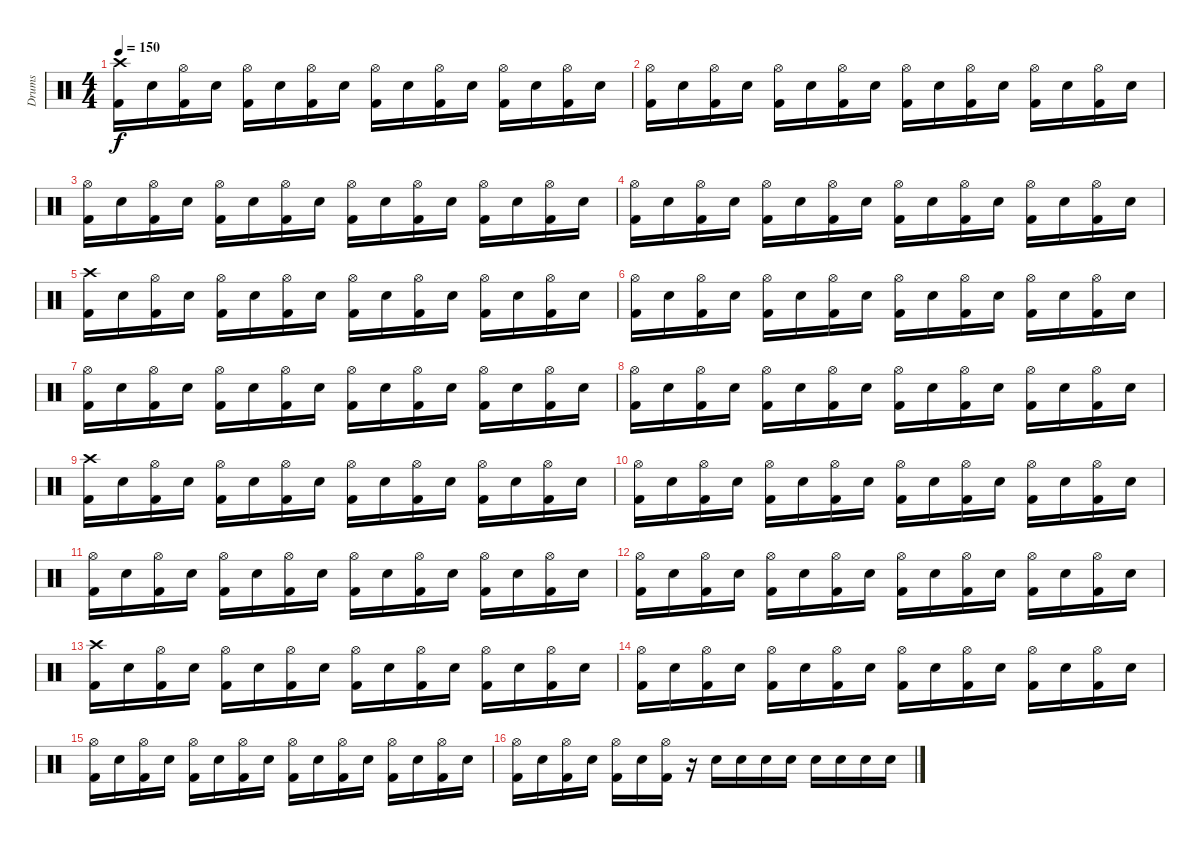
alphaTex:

\track ("Drums" "Drums") {instrument percussion}
\staff {score}
\articulation defaults
\ts (4 4)
\tempo 150
\clef neutral
\ks c
("Kick (hit) 2" "Crash high (hit)").16{dy f} "Electric Snare (hit)".16 ("Kick (hit) 2" "Hi-Hat (open)").16 "Electric Snare (hit)".16 ("Kick (hit) 2" "Hi-Hat (open)").16 "Electric Snare (hit)".16 ("Kick (hit) 2" "Hi-Hat (open)").16 "Electric Snare (hit)".16 ("Kick (hit) 2" "Hi-Hat (open)").16 "Electric Snare (hit)".16 ("Kick (hit) 2" "Hi-Hat (open)").16 "Electric Snare (hit)".16 ("Kick (hit) 2" "Hi-Hat (open)").16 "Electric Snare (hit)".16 ("Kick (hit) 2" "Hi-Hat (open)").16 "Electric Snare (hit)".16 |
("Kick (hit) 2" "Hi-Hat (open)").16 "Electric Snare (hit)".16 ("Kick (hit) 2" "Hi-Hat (open)").16 "Electric Snare (hit)".16 ("Kick (hit) 2" "Hi-Hat (open)").16 "Electric Snare (hit)".16 ("Kick (hit) 2" "Hi-Hat (open)").16 "Electric Snare (hit)".16 ("Kick (hit) 2" "Hi-Hat (open)").16 "Electric Snare (hit)".16 ("Kick (hit) 2" "Hi-Hat (open)").16 "Electric Snare (hit)".16 ("Kick (hit) 2" "Hi-Hat (open)").16 "Electric Snare (hit)".16 ("Kick (hit) 2" "Hi-Hat (open)").16 "Electric Snare (hit)".16 |
("Kick (hit) 2" "Hi-Hat (open)").16 "Electric Snare (hit)".16 ("Kick (hit) 2" "Hi-Hat (open)").16 "Electric Snare (hit)".16 ("Kick (hit) 2" "Hi-Hat (open)").16 "Electric Snare (hit)".16 ("Kick (hit) 2" "Hi-Hat (open)").16 "Electric Snare (hit)".16 ("Kick (hit) 2" "Hi-Hat (open)").16 "Electric Snare (hit)".16 ("Kick (hit) 2" "Hi-Hat (open)").16 "Electric Snare (hit)".16 ("Kick (hit) 2" "Hi-Hat (open)").16 "Electric Snare (hit)".16 ("Kick (hit) 2" "Hi-Hat (open)").16 "Electric Snare (hit)".16 |
("Kick (hit) 2" "Hi-Hat (open)").16 "Electric Snare (hit)".16 ("Kick (hit) 2" "Hi-Hat (open)").16 "Electric Snare (hit)".16 ("Kick (hit) 2" "Hi-Hat (open)").16 "Electric Snare (hit)".16 ("Kick (hit) 2" "Hi-Hat (open)").16 "Electric Snare (hit)".16 ("Kick (hit) 2" "Hi-Hat (open)").16 "Electric Snare (hit)".16 ("Kick (hit) 2" "Hi-Hat (open)").16 "Electric Snare (hit)".16 ("Kick (hit) 2" "Hi-Hat (open)").16 "Electric Snare (hit)".16 ("Kick (hit) 2" "Hi-Hat (open)").16 "Electric Snare (hit)".16 |
("Kick (hit) 2" "Crash high (hit)").16 "Electric Snare (hit)".16 ("Kick (hit) 2" "Hi-Hat (open)").16 "Electric Snare (hit)".16 ("Kick (hit) 2" "Hi-Hat (open)").16 "Electric Snare (hit)".16 ("Kick (hit) 2" "Hi-Hat (open)").16 "Electric Snare (hit)".16 ("Kick (hit) 2" "Hi-Hat (open)").16 "Electric Snare (hit)".16 ("Kick (hit) 2" "Hi-Hat (open)").16 "Electric Snare (hit)".16 ("Kick (hit) 2" "Hi-Hat (open)").16 "Electric Snare (hit)".16 ("Kick (hit) 2" "Hi-Hat (open)").16 "Electric Snare (hit)".16 |
("Kick (hit) 2" "Hi-Hat (open)").16 "Electric Snare (hit)".16 ("Kick (hit) 2" "Hi-Hat (open)").16 "Electric Snare (hit)".16 ("Kick (hit) 2" "Hi-Hat (open)").16 "Electric Snare (hit)".16 ("Kick (hit) 2" "Hi-Hat (open)").16 "Electric Snare (hit)".16 ("Kick (hit) 2" "Hi-Hat (open)").16 "Electric Snare (hit)".16 ("Kick (hit) 2" "Hi-Hat (open)").16 "Electric Snare (hit)".16 ("Kick (hit) 2" "Hi-Hat (open)").16 "Electric Snare (hit)".16 ("Kick (hit) 2" "Hi-Hat (open)").16 "Electric Snare (hit)".16 |
("Kick (hit) 2" "Hi-Hat (open)").16 "Electric Snare (hit)".16 ("Kick (hit) 2" "Hi-Hat (open)").16 "Electric Snare (hit)".16 ("Kick (hit) 2" "Hi-Hat (open)").16 "Electric Snare (hit)".16 ("Kick (hit) 2" "Hi-Hat (open)").16 "Electric Snare (hit)".16 ("Kick (hit) 2" "Hi-Hat (open)").16 "Electric Snare (hit)".16 ("Kick (hit) 2" "Hi-Hat (open)").16 "Electric Snare (hit)".16 ("Kick (hit) 2" "Hi-Hat (open)").16 "Electric Snare (hit)".16 ("Kick (hit) 2" "Hi-Hat (open)").16 "Electric Snare (hit)".16 |
("Kick (hit) 2" "Hi-Hat (open)").16 "Electric Snare (hit)".16 ("Kick (hit) 2" "Hi-Hat (open)").16 "Electric Snare (hit)".16 ("Kick (hit) 2" "Hi-Hat (open)").16 "Electric Snare (hit)".16 ("Kick (hit) 2" "Hi-Hat (open)").16 "Electric Snare (hit)".16 ("Kick (hit) 2" "Hi-Hat (open)").16 "Electric Snare (hit)".16 ("Kick (hit) 2" "Hi-Hat (open)").16 "Electric Snare (hit)".16 ("Kick (hit) 2" "Hi-Hat (open)").16 "Electric Snare (hit)".16 ("Kick (hit) 2" "Hi-Hat (open)").16 "Electric Snare (hit)".16 |
("Kick (hit) 2" "Crash high (hit)").16 "Electric Snare (hit)".16 ("Kick (hit) 2" "Hi-Hat (open)").16 "Electric Snare (hit)".16 ("Kick (hit) 2" "Hi-Hat (open)").16 "Electric Snare (hit)".16 ("Kick (hit) 2" "Hi-Hat (open)").16 "Electric Snare (hit)".16 ("Kick (hit) 2" "Hi-Hat (open)").16 "Electric Snare (hit)".16 ("Kick (hit) 2" "Hi-Hat (open)").16 "Electric Snare (hit)".16 ("Kick (hit) 2" "Hi-Hat (open)").16 "Electric Snare (hit)".16 ("Kick (hit) 2" "Hi-Hat (open)").16 "Electric Snare (hit)".16 |
("Kick (hit) 2" "Hi-Hat (open)").16 "Electric Snare (hit)".16 ("Kick (hit) 2" "Hi-Hat (open)").16 "Electric Snare (hit)".16 ("Kick (hit) 2" "Hi-Hat (open)").16 "Electric Snare (hit)".16 ("Kick (hit) 2" "Hi-Hat (open)").16 "Electric Snare (hit)".16 ("Kick (hit) 2" "Hi-Hat (open)").16 "Electric Snare (hit)".16 ("Kick (hit) 2" "Hi-Hat (open)").16 "Electric Snare (hit)".16 ("Kick (hit) 2" "Hi-Hat (open)").16 "Electric Snare (hit)".16 ("Kick (hit) 2" "Hi-Hat (open)").16 "Electric Snare (hit)".16 |
("Kick (hit) 2" "Hi-Hat (open)").16 "Electric Snare (hit)".16 ("Kick (hit) 2" "Hi-Hat (open)").16 "Electric Snare (hit)".16 ("Kick (hit) 2" "Hi-Hat (open)").16 "Electric Snare (hit)".16 ("Kick (hit) 2" "Hi-Hat (open)").16 "Electric Snare (hit)".16 ("Kick (hit) 2" "Hi-Hat (open)").16 "Electric Snare (hit)".16 ("Kick (hit) 2" "Hi-Hat (open)").16 "Electric Snare (hit)".16 ("Kick (hit) 2" "Hi-Hat (open)").16 "Electric Snare (hit)".16 ("Kick (hit) 2" "Hi-Hat (open)").16 "Electric Snare (hit)".16 |
("Kick (hit) 2" "Hi-Hat (open)").16 "Electric Snare (hit)".16 ("Kick (hit) 2" "Hi-Hat (open)").16 "Electric Snare (hit)".16 ("Kick (hit) 2" "Hi-Hat (open)").16 "Electric Snare (hit)".16 ("Kick (hit) 2" "Hi-Hat (open)").16 "Electric Snare (hit)".16 ("Kick (hit) 2" "Hi-Hat (open)").16 "Electric Snare (hit)".16 ("Kick (hit) 2" "Hi-Hat (open)").16 "Electric Snare (hit)".16 ("Kick (hit) 2" "Hi-Hat (open)").16 "Electric Snare (hit)".16 ("Kick (hit) 2" "Hi-Hat (open)").16 "Electric Snare (hit)".16 |
("Kick (hit) 2" "Crash high (hit)").16 "Electric Snare (hit)".16 ("Kick (hit) 2" "Hi-Hat (open)").16 "Electric Snare (hit)".16 ("Kick (hit) 2" "Hi-Hat (open)").16 "Electric Snare (hit)".16 ("Kick (hit) 2" "Hi-Hat (open)").16 "Electric Snare (hit)".16 ("Kick (hit) 2" "Hi-Hat (open)").16 "Electric Snare (hit)".16 ("Kick (hit) 2" "Hi-Hat (open)").16 "Electric Snare (hit)".16 ("Kick (hit) 2" "Hi-Hat (open)").16 "Electric Snare (hit)".16 ("Kick (hit) 2" "Hi-Hat (open)").16 "Electric Snare (hit)".16 |
("Kick (hit) 2" "Hi-Hat (open)").16 "Electric Snare (hit)".16 ("Kick (hit) 2" "Hi-Hat (open)").16 "Electric Snare (hit)".16 ("Kick (hit) 2" "Hi-Hat (open)").16 "Electric Snare (hit)".16 ("Kick (hit) 2" "Hi-Hat (open)").16 "Electric Snare (hit)".16 ("Kick (hit) 2" "Hi-Hat (open)").16 "Electric Snare (hit)".16 ("Kick (hit) 2" "Hi-Hat (open)").16 "Electric Snare (hit)".16 ("Kick (hit) 2" "Hi-Hat (open)").16 "Electric Snare (hit)".16 ("Kick (hit) 2" "Hi-Hat (open)").16 "Electric Snare (hit)".16 |
("Kick (hit) 2" "Hi-Hat (open)").16 "Electric Snare (hit)".16 ("Kick (hit) 2" "Hi-Hat (open)").16 "Electric Snare (hit)".16 ("Kick (hit) 2" "Hi-Hat (open)").16 "Electric Snare (hit)".16 ("Kick (hit) 2" "Hi-Hat (open)").16 "Electric Snare (hit)".16 ("Kick (hit) 2" "Hi-Hat (open)").16 "Electric Snare (hit)".16 ("Kick (hit) 2" "Hi-Hat (open)").16 "Electric Snare (hit)".16 ("Kick (hit) 2" "Hi-Hat (open)").16 "Electric Snare (hit)".16 ("Kick (hit) 2" "Hi-Hat (open)").16 "Electric Snare (hit)".16 |
("Kick (hit) 2" "Hi-Hat (open)").16 "Electric Snare (hit)".16 ("Kick (hit) 2" "Hi-Hat (open)").16 "Electric Snare (hit)".16 ("Kick (hit) 2" "Hi-Hat (open)").16 "Electric Snare (hit)".16 ("Kick (hit) 2" "Hi-Hat (open)").16 r.16 "Electric Snare (hit)".16 "Electric Snare (hit)".16 "Electric Snare (hit)".16 "Electric Snare (hit)".16 "Electric Snare (hit)".16 "Electric Snare (hit)".16 "Electric Snare (hit)".16 "Electric Snare (hit)".16
